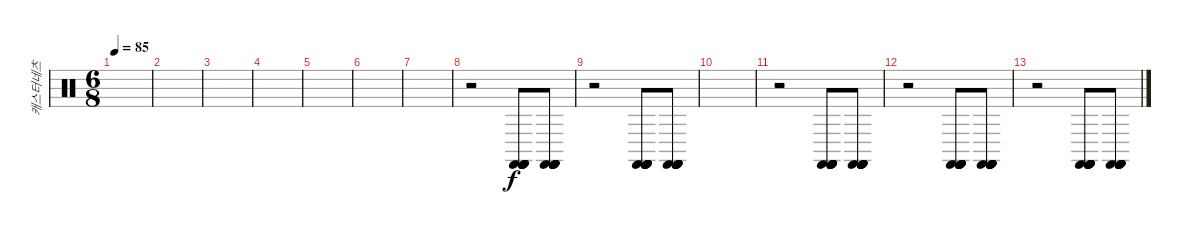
\track ("캐스터네츠" "캐스터네츠") {instrument percussion}
\staff {score}
\articulation defaults
\ts (6 8)
\tempo 85
\clef neutral
\ks c
|
|
|
|
|
|
|
r.2 ("Castanets (hit)" "Castanets (hit)" "Castanets (hit)" "Castanets (hit)" "Castanets (hit)" "Castanets (hit)").8 ("Castanets (hit)" "Castanets (hit)" "Castanets (hit)" "Castanets (hit)" "Castanets (hit)" "Castanets (hit)").8 |
r.2 ("Castanets (hit)" "Castanets (hit)" "Castanets (hit)" "Castanets (hit)" "Castanets (hit)" "Castanets (hit)").8 ("Castanets (hit)" "Castanets (hit)" "Castanets (hit)" "Castanets (hit)" "Castanets (hit)" "Castanets (hit)").8 |
|
r.2 ("Castanets (hit)" "Castanets (hit)" "Castanets (hit)" "Castanets (hit)" "Castanets (hit)" "Castanets (hit)").8 ("Castanets (hit)" "Castanets (hit)" "Castanets (hit)" "Castanets (hit)" "Castanets (hit)" "Castanets (hit)").8 |
r.2 ("Castanets (hit)" "Castanets (hit)" "Castanets (hit)" "Castanets (hit)" "Castanets (hit)" "Castanets (hit)").8 ("Castanets (hit)" "Castanets (hit)" "Castanets (hit)" "Castanets (hit)" "Castanets (hit)" "Castanets (hit)").8 |
r.2 ("Castanets (hit)" "Castanets (hit)" "Castanets (hit)" "Castanets (hit)" "Castanets (hit)" "Castanets (hit)").8 ("Castanets (hit)" "Castanets (hit)" "Castanets (hit)" "Castanets (hit)" "Castanets (hit)" "Castanets (hit)").8
